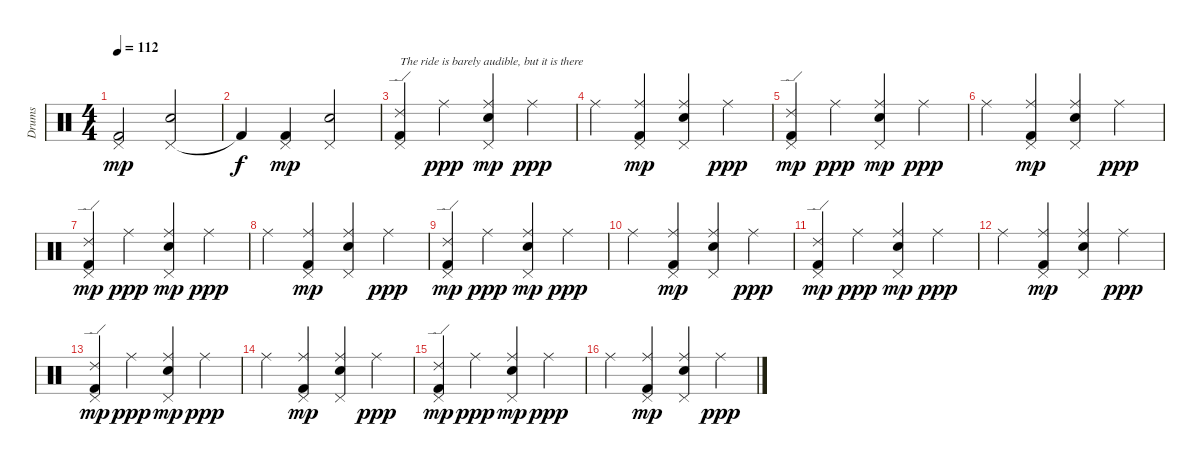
\track ("Drums" "Drums") {instrument percussion}
\staff {score}
\articulation defaults
\ts (4 4)
\tempo 112
\clef neutral
\ks c
("Pedal Hi-Hat (hit)" "Kick (hit) 2").2{dy mp} ("Pedal Hi-Hat (hit)" "Electric Snare (hit)").2 |
"Kick (hit) 2"{t}.4{dy f} ("Pedal Hi-Hat (hit)" "Kick (hit) 2").4{dy mp} ("Pedal Hi-Hat (hit)" "Electric Snare (hit)").2 |
("Ride (edge) 2" "Pedal Hi-Hat (hit)" "Kick (hit) 2").4{txt "The ride is barely audible, but it is there"} "Ride (middle)".4{dy ppp} ("Ride (middle)" "Pedal Hi-Hat (hit)" "Electric Snare (hit)").4{dy mp} "Ride (middle)".4{dy ppp} |
"Ride (middle)".4 ("Ride (middle)" "Pedal Hi-Hat (hit)" "Kick (hit) 2").4{dy mp} ("Ride (middle)" "Pedal Hi-Hat (hit)" "Electric Snare (hit)").4 "Ride (middle)".4{dy ppp} |
("Ride (edge) 2" "Pedal Hi-Hat (hit)" "Kick (hit) 2").4{dy mp} "Ride (middle)".4{dy ppp} ("Ride (middle)" "Pedal Hi-Hat (hit)" "Electric Snare (hit)").4{dy mp} "Ride (middle)".4{dy ppp} |
"Ride (middle)".4 ("Ride (middle)" "Pedal Hi-Hat (hit)" "Kick (hit) 2").4{dy mp} ("Ride (middle)" "Pedal Hi-Hat (hit)" "Electric Snare (hit)").4 "Ride (middle)".4{dy ppp} |
("Ride (edge) 2" "Pedal Hi-Hat (hit)" "Kick (hit) 2").4{dy mp} "Ride (middle)".4{dy ppp} ("Ride (middle)" "Pedal Hi-Hat (hit)" "Electric Snare (hit)").4{dy mp} "Ride (middle)".4{dy ppp} |
"Ride (middle)".4 ("Ride (middle)" "Pedal Hi-Hat (hit)" "Kick (hit) 2").4{dy mp} ("Ride (middle)" "Pedal Hi-Hat (hit)" "Electric Snare (hit)").4 "Ride (middle)".4{dy ppp} |
("Ride (edge) 2" "Pedal Hi-Hat (hit)" "Kick (hit) 2").4{dy mp} "Ride (middle)".4{dy ppp} ("Ride (middle)" "Pedal Hi-Hat (hit)" "Electric Snare (hit)").4{dy mp} "Ride (middle)".4{dy ppp} |
"Ride (middle)".4 ("Ride (middle)" "Pedal Hi-Hat (hit)" "Kick (hit) 2").4{dy mp} ("Ride (middle)" "Pedal Hi-Hat (hit)" "Electric Snare (hit)").4 "Ride (middle)".4{dy ppp} |
("Ride (edge) 2" "Pedal Hi-Hat (hit)" "Kick (hit) 2").4{dy mp} "Ride (middle)".4{dy ppp} ("Ride (middle)" "Pedal Hi-Hat (hit)" "Electric Snare (hit)").4{dy mp} "Ride (middle)".4{dy ppp} |
"Ride (middle)".4 ("Ride (middle)" "Pedal Hi-Hat (hit)" "Kick (hit) 2").4{dy mp} ("Ride (middle)" "Pedal Hi-Hat (hit)" "Electric Snare (hit)").4 "Ride (middle)".4{dy ppp} |
("Ride (edge) 2" "Pedal Hi-Hat (hit)" "Kick (hit) 2").4{dy mp} "Ride (middle)".4{dy ppp} ("Ride (middle)" "Pedal Hi-Hat (hit)" "Electric Snare (hit)").4{dy mp} "Ride (middle)".4{dy ppp} |
"Ride (middle)".4 ("Ride (middle)" "Pedal Hi-Hat (hit)" "Kick (hit) 2").4{dy mp} ("Ride (middle)" "Pedal Hi-Hat (hit)" "Electric Snare (hit)").4 "Ride (middle)".4{dy ppp} |
("Ride (edge) 2" "Pedal Hi-Hat (hit)" "Kick (hit) 2").4{dy mp} "Ride (middle)".4{dy ppp} ("Ride (middle)" "Pedal Hi-Hat (hit)" "Electric Snare (hit)").4{dy mp} "Ride (middle)".4{dy ppp} |
"Ride (middle)".4 ("Ride (middle)" "Pedal Hi-Hat (hit)" "Kick (hit) 2").4{dy mp} ("Ride (middle)" "Pedal Hi-Hat (hit)" "Electric Snare (hit)").4 "Ride (middle)".4{dy ppp}
